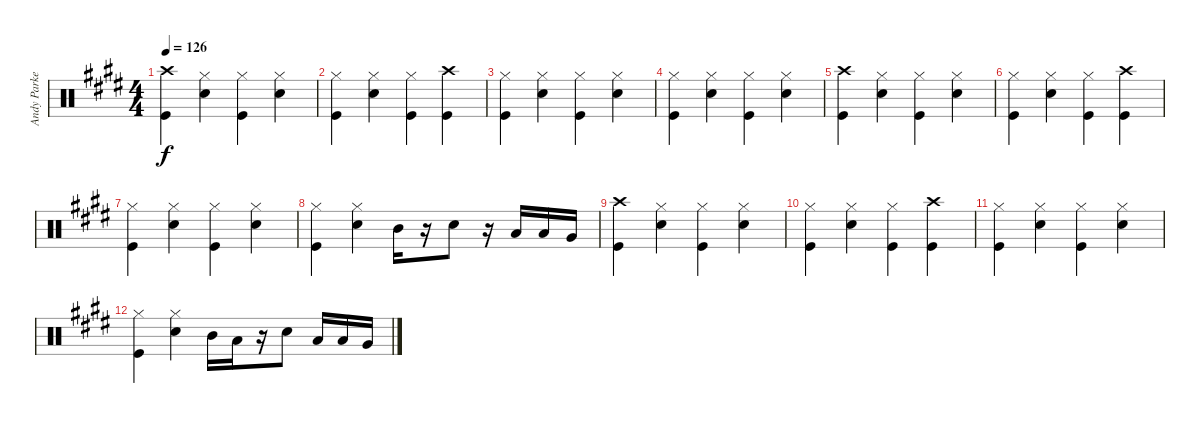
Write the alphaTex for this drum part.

\track ("Andy Parker Drums" "Andy Parke") {instrument percussion}
\staff {score}
\articulation defaults
\ts (4 4)
\tempo 126
\clef neutral
\ks e
("Crash high (hit)" "Kick (hit)").4{dy f} ("Hi-Hat (closed)" "Snare (hit) 2").4 ("Hi-Hat (closed)" "Kick (hit)").4 ("Hi-Hat (closed)" "Snare (hit) 2").4 |
("Hi-Hat (closed)" "Kick (hit)").4 ("Hi-Hat (closed)" "Snare (hit) 2").4 ("Hi-Hat (closed)" "Kick (hit)").4 ("Crash high (hit)" "Kick (hit)").4 |
("Hi-Hat (closed)" "Kick (hit)").4 ("Hi-Hat (closed)" "Snare (hit) 2").4 ("Hi-Hat (closed)" "Kick (hit)").4 ("Hi-Hat (closed)" "Snare (hit) 2").4 |
("Hi-Hat (closed)" "Kick (hit)").4 ("Hi-Hat (closed)" "Snare (hit) 2").4 ("Hi-Hat (closed)" "Kick (hit)").4 ("Hi-Hat (closed)" "Snare (hit) 2").4 |
("Crash high (hit)" "Kick (hit)").4 ("Hi-Hat (closed)" "Snare (hit) 2").4 ("Hi-Hat (closed)" "Kick (hit)").4 ("Hi-Hat (closed)" "Snare (hit) 2").4 |
("Hi-Hat (closed)" "Kick (hit)").4 ("Hi-Hat (closed)" "Snare (hit) 2").4 ("Hi-Hat (closed)" "Kick (hit)").4 ("Crash high (hit)" "Kick (hit)").4 |
("Hi-Hat (closed)" "Kick (hit)").4 ("Hi-Hat (closed)" "Snare (hit) 2").4 ("Hi-Hat (closed)" "Kick (hit)").4 ("Hi-Hat (closed)" "Snare (hit) 2").4 |
("Hi-Hat (closed)" "Kick (hit)").4 ("Hi-Hat (closed)" "Snare (hit) 2").4 "Mid Tom (hit)".16 r.16 "Snare (hit) 2".8 r.16 "Low Tom (hit)".16 "Low Tom (hit)".16 "Very Low Tom (hit)".16 |
("Crash high (hit)" "Kick (hit)").4 ("Hi-Hat (closed)" "Snare (hit) 2").4 ("Hi-Hat (closed)" "Kick (hit)").4 ("Hi-Hat (closed)" "Snare (hit) 2").4 |
("Hi-Hat (closed)" "Kick (hit)").4 ("Hi-Hat (closed)" "Snare (hit) 2").4 ("Hi-Hat (closed)" "Kick (hit)").4 ("Crash high (hit)" "Kick (hit)").4 |
("Hi-Hat (closed)" "Kick (hit)").4 ("Hi-Hat (closed)" "Snare (hit) 2").4 ("Hi-Hat (closed)" "Kick (hit)").4 ("Hi-Hat (closed)" "Snare (hit) 2").4 |
("Hi-Hat (closed)" "Kick (hit)").4 ("Hi-Hat (closed)" "Snare (hit) 2").4 "Mid Tom (hit)".16 "Low Tom (hit)".16 r.16 "Snare (hit) 2".8 "Low Tom (hit)".16 "Low Tom (hit)".16 "Very Low Tom (hit)".16
